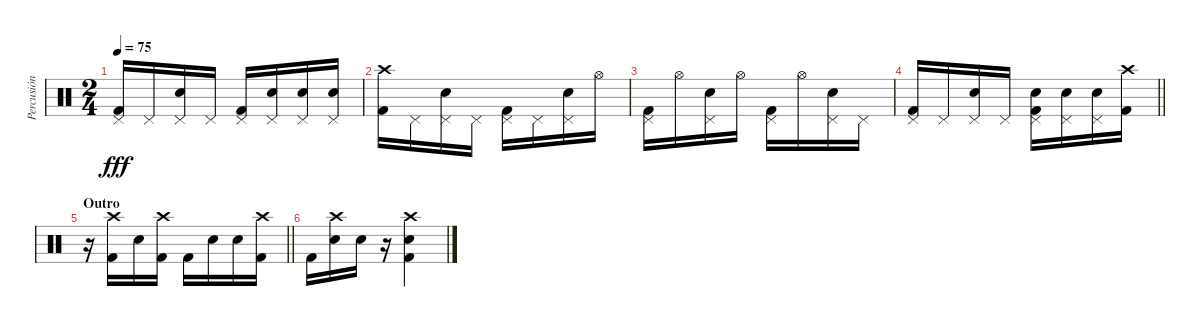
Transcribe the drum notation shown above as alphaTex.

\track ("Percusión" "Percusión") {instrument percussion}
\staff {score}
\articulation defaults
\ts (2 4)
\tempo 75
\clef neutral
\ks c
("Pedal Hi-Hat (hit)" "Kick (hit) 2").16{dy fff} "Pedal Hi-Hat (hit)".16 ("Pedal Hi-Hat (hit)" "Snare (hit) 2").16 "Pedal Hi-Hat (hit)".16 ("Pedal Hi-Hat (hit)" "Kick (hit) 2").16 ("Pedal Hi-Hat (hit)" "Snare (hit) 2").16 ("Pedal Hi-Hat (hit)" "Snare (hit) 2").16 ("Pedal Hi-Hat (hit)" "Snare (hit) 2").16 |
("Crash high (hit)" "Kick (hit) 2").16 "Pedal Hi-Hat (hit)".16 ("Pedal Hi-Hat (hit)" "Snare (hit) 2").16 "Pedal Hi-Hat (hit)".16 ("Pedal Hi-Hat (hit)" "Kick (hit) 2").16 "Pedal Hi-Hat (hit)".16 ("Pedal Hi-Hat (hit)" "Snare (hit) 2").16 "Hi-Hat (open)".16 |
("Pedal Hi-Hat (hit)" "Kick (hit) 2").16 "Hi-Hat (open)".16 ("Pedal Hi-Hat (hit)" "Snare (hit) 2").16 "Hi-Hat (open)".16 ("Pedal Hi-Hat (hit)" "Kick (hit) 2").16 "Hi-Hat (open)".16 ("Pedal Hi-Hat (hit)" "Snare (hit) 2").16 "Pedal Hi-Hat (hit)".16 |
\barLineRight lightlight
("Pedal Hi-Hat (hit)" "Kick (hit) 2").16 "Pedal Hi-Hat (hit)".16 ("Pedal Hi-Hat (hit)" "Snare (hit) 2").16 "Pedal Hi-Hat (hit)".16 ("Pedal Hi-Hat (hit)" "Snare (hit) 2" "Kick (hit) 2").16 ("Pedal Hi-Hat (hit)" "Snare (hit) 2").16 ("Pedal Hi-Hat (hit)" "Snare (hit) 2").16 ("Crash high (hit)" "Kick (hit) 2").16 |
\section ("" "Outro")
\barLineRight lightlight
r.16 ("Crash high (hit)" "Kick (hit) 2").16 "Snare (hit) 2".16 ("Crash high (hit)" "Kick (hit) 2").16 "Kick (hit) 2".16 "Snare (hit) 2".16 "Snare (hit) 2".16 ("Crash high (hit)" "Kick (hit) 2").16 |
"Kick (hit) 2".16 ("Crash high (hit)" "Snare (hit) 2").16 "Snare (hit) 2".16 r.16 ("Crash high (hit)" "Snare (hit) 2" "Kick (hit) 2").4
